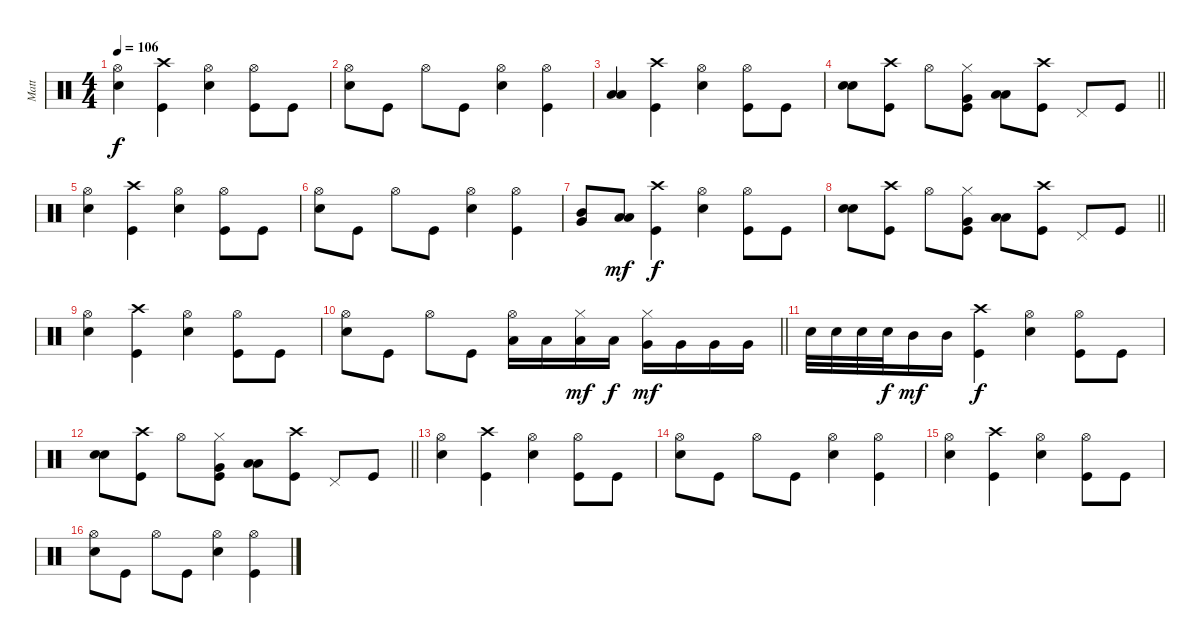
\track ("Matt" "Matt") {instrument percussion}
\staff {score}
\articulation defaults
\ts (4 4)
\tempo 106
\clef neutral
\ks c
("Electric Snare (hit)" "Hi-Hat (open)").4{dy f} ("Crash high (hit)" "Kick (hit)").4 ("Electric Snare (hit)" "Hi-Hat (open)").4 ("Hi-Hat (open)" "Kick (hit)").8 "Kick (hit)".8 |
("Electric Snare (hit)" "Hi-Hat (open)").8 "Kick (hit)".8 "Hi-Hat (open)".8 "Kick (hit)".8 ("Electric Snare (hit)" "Hi-Hat (open)").4 ("Hi-Hat (open)" "Kick (hit)").4 |
("Low Floor Tom (hit)" "Low Floor Tom (hit)").4 ("Crash high (hit)" "Kick (hit)").4 ("Electric Snare (hit)" "Hi-Hat (open)").4 ("Hi-Hat (open)" "Kick (hit)").8 "Kick (hit)".8 |
\barLineRight lightlight
("Electric Snare (hit)" "Electric Snare (hit)").8 ("Crash high (hit)" "Kick (hit)").8 "Hi-Hat (open)".8 ("Hi-Hat (closed)" "Very Low Tom (hit)" "Kick (hit)").8 ("Low Floor Tom (hit)" "Low Floor Tom (hit)").8 ("Crash high (hit)" "Kick (hit)").8 "Pedal Hi-Hat (hit)".8 "Kick (hit)".8 |
("Electric Snare (hit)" "Hi-Hat (open)").4 ("Crash high (hit)" "Kick (hit)").4 ("Electric Snare (hit)" "Hi-Hat (open)").4 ("Hi-Hat (open)" "Kick (hit)").8 "Kick (hit)".8 |
("Electric Snare (hit)" "Hi-Hat (open)").8 "Kick (hit)".8 "Hi-Hat (open)".8 "Kick (hit)".8 ("Electric Snare (hit)" "Hi-Hat (open)").4 ("Hi-Hat (open)" "Kick (hit)").4 |
("Mid Tom (hit)" "Very Low Tom (hit)").8 ("Low Tom (hit)" "Low Tom (hit)").8{dy mf} ("Crash high (hit)" "Kick (hit)").4{dy f} ("Electric Snare (hit)" "Hi-Hat (open)").4 ("Hi-Hat (open)" "Kick (hit)").8 "Kick (hit)".8 |
\barLineRight lightlight
("Electric Snare (hit)" "Electric Snare (hit)").8 ("Crash high (hit)" "Kick (hit)").8 "Hi-Hat (open)".8 ("Hi-Hat (closed)" "Very Low Tom (hit)" "Kick (hit)").8 ("Low Floor Tom (hit)" "Low Floor Tom (hit)").8 ("Crash high (hit)" "Kick (hit)").8 "Pedal Hi-Hat (hit)".8 "Kick (hit)".8 |
("Electric Snare (hit)" "Hi-Hat (open)").4 ("Crash high (hit)" "Kick (hit)").4 ("Electric Snare (hit)" "Hi-Hat (open)").4 ("Hi-Hat (open)" "Kick (hit)").8 "Kick (hit)".8 |
\barLineRight lightlight
("Electric Snare (hit)" "Hi-Hat (open)").8 "Kick (hit)".8 "Hi-Hat (open)".8 "Kick (hit)".8 ("Low Tom (hit)" "Hi-Hat (open)").16 "Low Tom (hit)".16 ("Low Tom (hit)" "Hi-Hat (closed)").16{dy mf} "Low Tom (hit)".16{dy f} ("Very Low Tom (hit)" "Hi-Hat (closed)").16{dy mf} "Very Low Tom (hit)".16 "Very Low Tom (hit)".16 "Very Low Tom (hit)".16 |
"Electric Snare (hit)".32 "Electric Snare (hit)".32 "Electric Snare (hit)".32 "Electric Snare (hit)".32{dy f} "Mid Tom (hit)".16{dy mf} "Mid Tom (hit)".16 ("Crash high (hit)" "Kick (hit)").4{dy f} ("Electric Snare (hit)" "Hi-Hat (open)").4 ("Hi-Hat (open)" "Kick (hit)").8 "Kick (hit)".8 |
\barLineRight lightlight
("Electric Snare (hit)" "Electric Snare (hit)").8 ("Crash high (hit)" "Kick (hit)").8 "Hi-Hat (open)".8 ("Hi-Hat (closed)" "Very Low Tom (hit)" "Kick (hit)").8 ("Low Floor Tom (hit)" "Low Floor Tom (hit)").8 ("Crash high (hit)" "Kick (hit)").8 "Pedal Hi-Hat (hit)".8 "Kick (hit)".8 |
("Electric Snare (hit)" "Hi-Hat (open)").4 ("Crash high (hit)" "Kick (hit)").4 ("Electric Snare (hit)" "Hi-Hat (open)").4 ("Hi-Hat (open)" "Kick (hit)").8 "Kick (hit)".8 |
("Electric Snare (hit)" "Hi-Hat (open)").8 "Kick (hit)".8 "Hi-Hat (open)".8 "Kick (hit)".8 ("Electric Snare (hit)" "Hi-Hat (open)").4 ("Hi-Hat (open)" "Kick (hit)").4 |
("Electric Snare (hit)" "Hi-Hat (open)").4 ("Crash high (hit)" "Kick (hit)").4 ("Electric Snare (hit)" "Hi-Hat (open)").4 ("Hi-Hat (open)" "Kick (hit)").8 "Kick (hit)".8 |
("Electric Snare (hit)" "Hi-Hat (open)").8 "Kick (hit)".8 "Hi-Hat (open)".8 "Kick (hit)".8 ("Electric Snare (hit)" "Hi-Hat (open)").4 ("Hi-Hat (open)" "Kick (hit)").4
